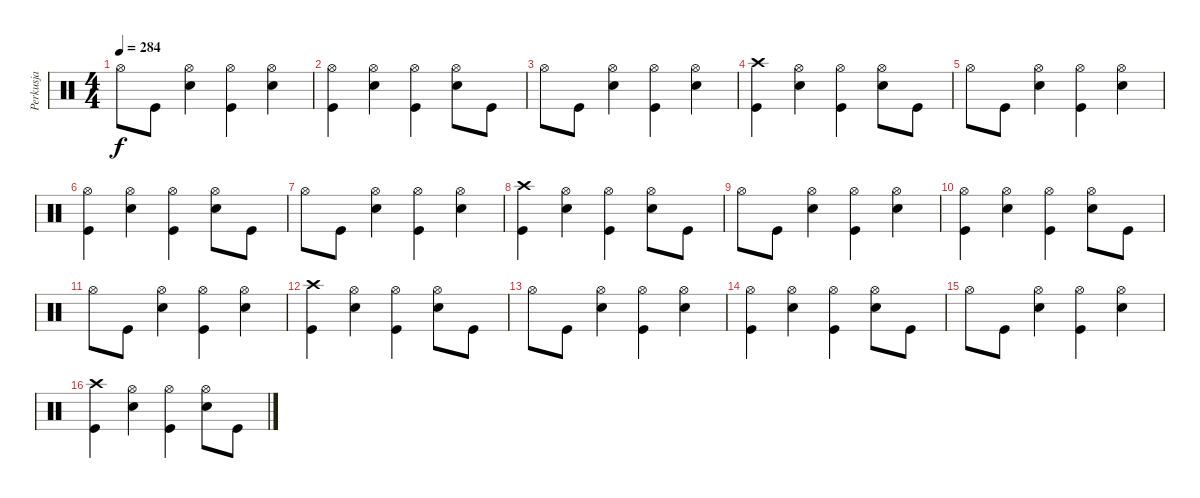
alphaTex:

\track ("Perkusja" "Perkusja") {instrument percussion}
\staff {score}
\articulation defaults
\ts (4 4)
\tempo 284
\clef neutral
\ks c "Hi-Hat (open)".8{dy f} "Kick (hit)".8
("Hi-Hat (open)" "Snare (hit) 2").4 ("Hi-Hat (open)" "Kick (hit)").4 ("Hi-Hat (open)" "Snare (hit) 2").4 |
("Hi-Hat (open)" "Kick (hit)").4 ("Hi-Hat (open)" "Snare (hit) 2").4 ("Hi-Hat (open)" "Kick (hit)").4 ("Hi-Hat (open)" "Snare (hit) 2").8 "Kick (hit)".8 |
"Hi-Hat (open)".8 "Kick (hit)".8 ("Hi-Hat (open)" "Snare (hit) 2").4 ("Hi-Hat (open)" "Kick (hit)").4 ("Hi-Hat (open)" "Snare (hit) 2").4 |
("Kick (hit)" "Crash high (hit)").4 ("Hi-Hat (open)" "Snare (hit) 2").4 ("Hi-Hat (open)" "Kick (hit)").4 ("Hi-Hat (open)" "Snare (hit) 2").8 "Kick (hit)".8 |
"Hi-Hat (open)".8 "Kick (hit)".8 ("Hi-Hat (open)" "Snare (hit) 2").4 ("Hi-Hat (open)" "Kick (hit)").4 ("Hi-Hat (open)" "Snare (hit) 2").4 |
("Hi-Hat (open)" "Kick (hit)").4 ("Hi-Hat (open)" "Snare (hit) 2").4 ("Hi-Hat (open)" "Kick (hit)").4 ("Hi-Hat (open)" "Snare (hit) 2").8 "Kick (hit)".8 |
"Hi-Hat (open)".8 "Kick (hit)".8 ("Hi-Hat (open)" "Snare (hit) 2").4 ("Hi-Hat (open)" "Kick (hit)").4 ("Hi-Hat (open)" "Snare (hit) 2").4 |
("Kick (hit)" "Crash high (hit)").4 ("Hi-Hat (open)" "Snare (hit) 2").4 ("Hi-Hat (open)" "Kick (hit)").4 ("Hi-Hat (open)" "Snare (hit) 2").8 "Kick (hit)".8 |
"Hi-Hat (open)".8 "Kick (hit)".8 ("Hi-Hat (open)" "Snare (hit) 2").4 ("Hi-Hat (open)" "Kick (hit)").4 ("Hi-Hat (open)" "Snare (hit) 2").4 |
("Hi-Hat (open)" "Kick (hit)").4 ("Hi-Hat (open)" "Snare (hit) 2").4 ("Hi-Hat (open)" "Kick (hit)").4 ("Hi-Hat (open)" "Snare (hit) 2").8 "Kick (hit)".8 |
"Hi-Hat (open)".8 "Kick (hit)".8 ("Hi-Hat (open)" "Snare (hit) 2").4 ("Hi-Hat (open)" "Kick (hit)").4 ("Hi-Hat (open)" "Snare (hit) 2").4 |
("Kick (hit)" "Crash high (hit)").4 ("Hi-Hat (open)" "Snare (hit) 2").4 ("Hi-Hat (open)" "Kick (hit)").4 ("Hi-Hat (open)" "Snare (hit) 2").8 "Kick (hit)".8 |
"Hi-Hat (open)".8 "Kick (hit)".8 ("Hi-Hat (open)" "Snare (hit) 2").4 ("Hi-Hat (open)" "Kick (hit)").4 ("Hi-Hat (open)" "Snare (hit) 2").4 |
("Hi-Hat (open)" "Kick (hit)").4 ("Hi-Hat (open)" "Snare (hit) 2").4 ("Hi-Hat (open)" "Kick (hit)").4 ("Hi-Hat (open)" "Snare (hit) 2").8 "Kick (hit)".8 |
"Hi-Hat (open)".8 "Kick (hit)".8 ("Hi-Hat (open)" "Snare (hit) 2").4 ("Hi-Hat (open)" "Kick (hit)").4 ("Hi-Hat (open)" "Snare (hit) 2").4 |
("Kick (hit)" "Crash high (hit)").4 ("Hi-Hat (open)" "Snare (hit) 2").4 ("Hi-Hat (open)" "Kick (hit)").4 ("Hi-Hat (open)" "Snare (hit) 2").8 "Kick (hit)".8
